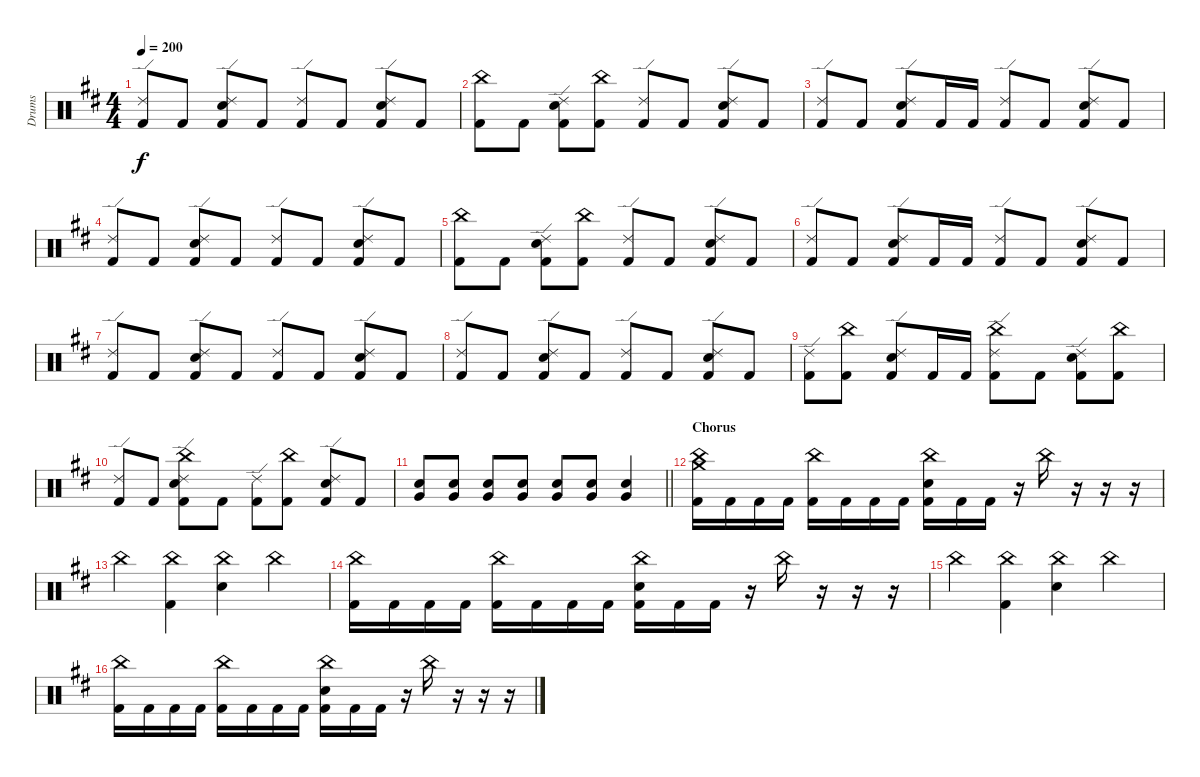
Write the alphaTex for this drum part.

\track ("Drums" "Drums") {instrument percussion}
\staff {score}
\articulation defaults
\ts (4 4)
\tempo 200
\clef neutral
\ks bminor
("Kick (hit) 2" "Ride (edge) 2").8{dy f} "Kick (hit) 2".8 ("Kick (hit) 2" "Electric Snare (hit)" "Ride (edge) 2").8 "Kick (hit) 2".8 ("Kick (hit) 2" "Ride (edge) 2").8 "Kick (hit) 2".8 ("Kick (hit) 2" "Electric Snare (hit)" "Ride (edge) 2").8 "Kick (hit) 2".8 |
("Kick (hit) 2" "China (hit)").8 "Kick (hit) 2".8 ("Kick (hit) 2" "Electric Snare (hit)" "Ride (edge) 2").8 ("Kick (hit) 2" "China (hit)").8 ("Kick (hit) 2" "Ride (edge) 2").8 "Kick (hit) 2".8 ("Kick (hit) 2" "Electric Snare (hit)" "Ride (edge) 2").8 "Kick (hit) 2".8 |
("Kick (hit) 2" "Ride (edge) 2").8 "Kick (hit) 2".8 ("Kick (hit) 2" "Electric Snare (hit)" "Ride (edge) 2").8 "Kick (hit) 2".16 "Kick (hit) 2".16 ("Kick (hit) 2" "Ride (edge) 2").8 "Kick (hit) 2".8 ("Kick (hit) 2" "Electric Snare (hit)" "Ride (edge) 2").8 "Kick (hit) 2".8 |
("Kick (hit) 2" "Ride (edge) 2").8 "Kick (hit) 2".8 ("Kick (hit) 2" "Electric Snare (hit)" "Ride (edge) 2").8 "Kick (hit) 2".8 ("Kick (hit) 2" "Ride (edge) 2").8 "Kick (hit) 2".8 ("Kick (hit) 2" "Electric Snare (hit)" "Ride (edge) 2").8 "Kick (hit) 2".8 |
("Kick (hit) 2" "China (hit)").8 "Kick (hit) 2".8 ("Kick (hit) 2" "Electric Snare (hit)" "Ride (edge) 2").8 ("Kick (hit) 2" "China (hit)").8 ("Kick (hit) 2" "Ride (edge) 2").8 "Kick (hit) 2".8 ("Kick (hit) 2" "Electric Snare (hit)" "Ride (edge) 2").8 "Kick (hit) 2".8 |
("Kick (hit) 2" "Ride (edge) 2").8 "Kick (hit) 2".8 ("Kick (hit) 2" "Electric Snare (hit)" "Ride (edge) 2").8 "Kick (hit) 2".16 "Kick (hit) 2".16 ("Kick (hit) 2" "Ride (edge) 2").8 "Kick (hit) 2".8 ("Kick (hit) 2" "Electric Snare (hit)" "Ride (edge) 2").8 "Kick (hit) 2".8 |
("Kick (hit) 2" "Ride (edge) 2").8 "Kick (hit) 2".8 ("Kick (hit) 2" "Electric Snare (hit)" "Ride (edge) 2").8 "Kick (hit) 2".8 ("Kick (hit) 2" "Ride (edge) 2").8 "Kick (hit) 2".8 ("Kick (hit) 2" "Electric Snare (hit)" "Ride (edge) 2").8 "Kick (hit) 2".8 |
("Kick (hit) 2" "Ride (edge) 2").8 "Kick (hit) 2".8 ("Kick (hit) 2" "Electric Snare (hit)" "Ride (edge) 2").8 "Kick (hit) 2".8 ("Kick (hit) 2" "Ride (edge) 2").8 "Kick (hit) 2".8 ("Kick (hit) 2" "Electric Snare (hit)" "Ride (edge) 2").8 "Kick (hit) 2".8 |
("Kick (hit) 2" "Ride (edge) 2").8 ("Kick (hit) 2" "China (hit)").8 ("Kick (hit) 2" "Electric Snare (hit)" "Ride (edge) 2").8 "Kick (hit) 2".16 "Kick (hit) 2".16 ("Kick (hit) 2" "Ride (edge) 2" "China (hit)").8 "Kick (hit) 2".8 ("Kick (hit) 2" "Electric Snare (hit)" "Ride (edge) 2").8 ("Kick (hit) 2" "China (hit)").8 |
("Kick (hit) 2" "Ride (edge) 2").8 "Kick (hit) 2".8 ("Kick (hit) 2" "Electric Snare (hit)" "Ride (edge) 2" "China (hit)").8 "Kick (hit) 2".8 ("Kick (hit) 2" "Ride (edge) 2").8 ("Kick (hit) 2" "China (hit)").8 ("Kick (hit) 2" "Electric Snare (hit)" "Ride (edge) 2").8 "Kick (hit) 2".8 |
\barLineRight lightlight
("Electric Snare (hit)" "Very Low Tom (hit)").8 ("Electric Snare (hit)" "Very Low Tom (hit)").8 ("Electric Snare (hit)" "Very Low Tom (hit)").8 ("Electric Snare (hit)" "Very Low Tom (hit)").8 ("Electric Snare (hit)" "Very Low Tom (hit)").8 ("Electric Snare (hit)" "Very Low Tom (hit)").8 ("Electric Snare (hit)" "Very Low Tom (hit)").4 |
\section ("" "Chorus")
("Kick (hit) 2" "Crash medium (hit)" "China (hit)").16 "Kick (hit) 2".16 "Kick (hit) 2".16 "Kick (hit) 2".16 ("Kick (hit) 2" "China (hit)").16 "Kick (hit) 2".16 "Kick (hit) 2".16 "Kick (hit) 2".16 ("Kick (hit) 2" "Electric Snare (hit)" "China (hit)").16 "Kick (hit) 2".16 "Kick (hit) 2".16 r.16 "China (hit)".16 r.16 r.16 r.16 |
"China (hit)".4 ("Kick (hit) 2" "China (hit)").4 ("Electric Snare (hit)" "China (hit)").4 "China (hit)".4 |
("Kick (hit) 2" "China (hit)").16 "Kick (hit) 2".16 "Kick (hit) 2".16 "Kick (hit) 2".16 ("Kick (hit) 2" "China (hit)").16 "Kick (hit) 2".16 "Kick (hit) 2".16 "Kick (hit) 2".16 ("Kick (hit) 2" "Electric Snare (hit)" "China (hit)").16 "Kick (hit) 2".16 "Kick (hit) 2".16 r.16 "China (hit)".16 r.16 r.16 r.16 |
"China (hit)".4 ("Kick (hit) 2" "China (hit)").4 ("Electric Snare (hit)" "China (hit)").4 "China (hit)".4 |
("Kick (hit) 2" "China (hit)").16 "Kick (hit) 2".16 "Kick (hit) 2".16 "Kick (hit) 2".16 ("Kick (hit) 2" "China (hit)").16 "Kick (hit) 2".16 "Kick (hit) 2".16 "Kick (hit) 2".16 ("Kick (hit) 2" "Electric Snare (hit)" "China (hit)").16 "Kick (hit) 2".16 "Kick (hit) 2".16 r.16 "China (hit)".16 r.16 r.16 r.16
